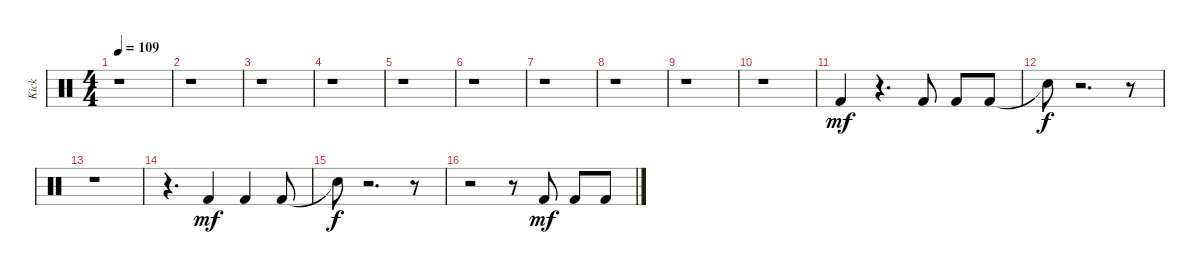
\track ("Kick" "Kick") {instrument percussion}
\staff {score}
\articulation defaults
\ts (4 4)
\tempo 109
\clef neutral
\ks c
r.1{dy mf} |
r.1 |
r.1 |
r.1 |
r.1 |
r.1 |
r.1 |
r.1 |
r.1 |
r.1 |
"Kick (hit) 2".4 r.4{d} "Kick (hit) 2".8 "Kick (hit) 2".8 "Kick (hit) 2".8 |
"Snare (hit)"{t}.8{dy f} r.2{d} r.8 |
r.1 |
r.4{d} "Kick (hit) 2".4{dy mf} "Kick (hit) 2".4 "Kick (hit) 2".8 |
"Snare (hit)"{t}.8{dy f} r.2{d} r.8 |
r.2 r.8 "Kick (hit) 2".8{dy mf} "Kick (hit) 2".8 "Kick (hit) 2".8
